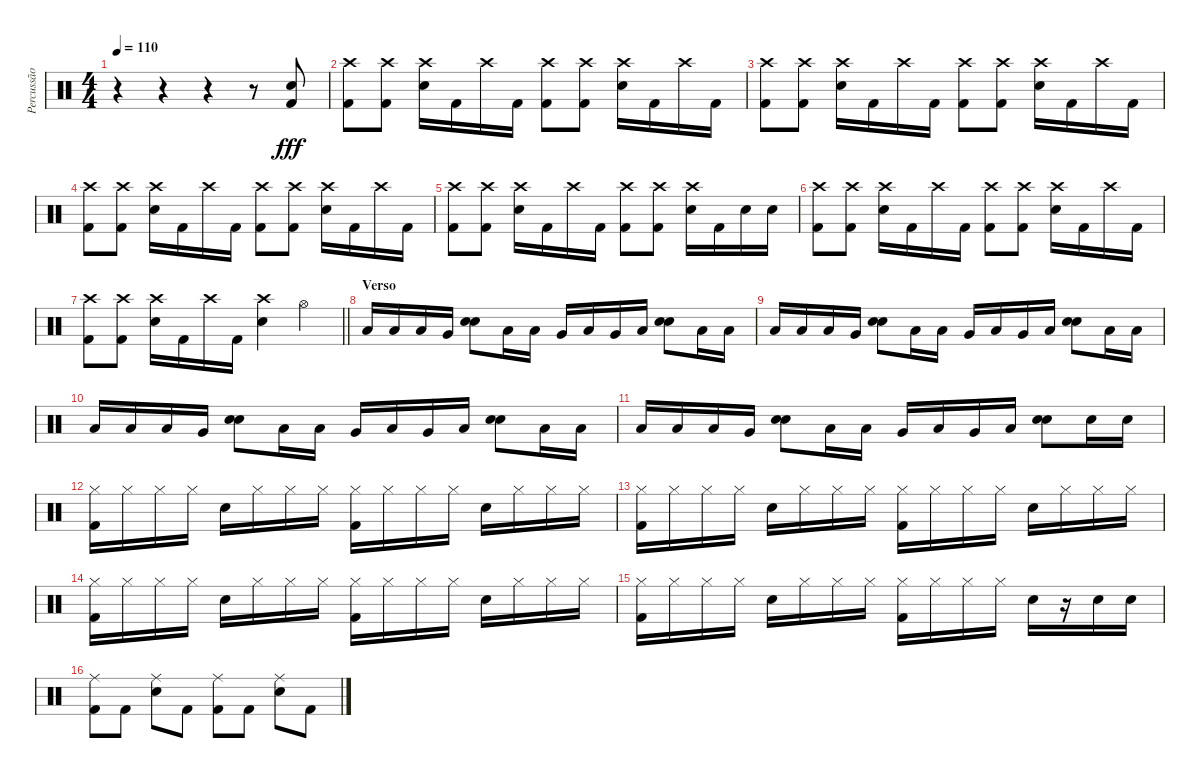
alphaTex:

\track ("Percussão" "Percussão") {instrument percussion}
\staff {score}
\articulation defaults
\ts (4 4)
\tempo 110
\clef neutral
\ks c
r.4{dy fff} r.4 r.4 r.8 ("Electric Snare (hit)" "Kick (hit) 2").8 |
("Crash high (hit)" "Kick (hit) 2").8 ("Crash high (hit)" "Kick (hit) 2").8 ("Crash high (hit)" "Electric Snare (hit)").16 "Kick (hit) 2".16 "Crash high (hit)".16 "Kick (hit) 2".16 ("Crash high (hit)" "Kick (hit) 2").8 ("Crash high (hit)" "Kick (hit) 2").8 ("Crash high (hit)" "Electric Snare (hit)").16 "Kick (hit) 2".16 "Crash high (hit)".16 "Kick (hit) 2".16 |
("Crash high (hit)" "Kick (hit) 2").8 ("Crash high (hit)" "Kick (hit) 2").8 ("Crash high (hit)" "Electric Snare (hit)").16 "Kick (hit) 2".16 "Crash high (hit)".16 "Kick (hit) 2".16 ("Crash high (hit)" "Kick (hit) 2").8 ("Crash high (hit)" "Kick (hit) 2").8 ("Crash high (hit)" "Electric Snare (hit)").16 "Kick (hit) 2".16 "Crash high (hit)".16 "Kick (hit) 2".16 |
("Crash high (hit)" "Kick (hit) 2").8 ("Crash high (hit)" "Kick (hit) 2").8 ("Crash high (hit)" "Electric Snare (hit)").16 "Kick (hit) 2".16 "Crash high (hit)".16 "Kick (hit) 2".16 ("Crash high (hit)" "Kick (hit) 2").8 ("Crash high (hit)" "Kick (hit) 2").8 ("Crash high (hit)" "Electric Snare (hit)").16 "Kick (hit) 2".16 "Crash high (hit)".16 "Kick (hit) 2".16 |
("Crash high (hit)" "Kick (hit) 2").8 ("Crash high (hit)" "Kick (hit) 2").8 ("Crash high (hit)" "Electric Snare (hit)").16 "Kick (hit) 2".16 "Crash high (hit)".16 "Kick (hit) 2".16 ("Crash high (hit)" "Kick (hit) 2").8 ("Crash high (hit)" "Kick (hit) 2").8 ("Crash high (hit)" "Electric Snare (hit)").16 "Kick (hit) 2".16 "Electric Snare (hit)".16 "Electric Snare (hit)".16 |
("Crash high (hit)" "Kick (hit) 2").8 ("Crash high (hit)" "Kick (hit) 2").8 ("Crash high (hit)" "Electric Snare (hit)").16 "Kick (hit) 2".16 "Crash high (hit)".16 "Kick (hit) 2".16 ("Crash high (hit)" "Kick (hit) 2").8 ("Crash high (hit)" "Kick (hit) 2").8 ("Crash high (hit)" "Electric Snare (hit)").16 "Kick (hit) 2".16 "Crash high (hit)".16 "Kick (hit) 2".16 |
\barLineRight lightlight
("Crash high (hit)" "Kick (hit) 2").8 ("Crash high (hit)" "Kick (hit) 2").8 ("Crash high (hit)" "Electric Snare (hit)").16 "Kick (hit) 2".16 "Crash high (hit)".16 "Kick (hit) 2".16 ("Crash high (hit)" "Electric Snare (hit)").4 "Hi-Hat (open)".4 |
\section ("" "Verso")
"Low Floor Tom (hit)".16 "Low Floor Tom (hit)".16 "Low Floor Tom (hit)".16 "Very Low Tom (hit)".16 ("Electric Snare (hit)" "Electric Snare (hit)").8{bd 240} "Low Floor Tom (hit)".16 "Low Floor Tom (hit)".16 "Very Low Tom (hit)".16 "Low Floor Tom (hit)".16 "Very Low Tom (hit)".16 "Low Floor Tom (hit)".16 ("Electric Snare (hit)" "Electric Snare (hit)").8{bd 240} "Low Floor Tom (hit)".16 "Low Floor Tom (hit)".16 |
"Low Floor Tom (hit)".16 "Low Floor Tom (hit)".16 "Low Floor Tom (hit)".16 "Very Low Tom (hit)".16 ("Electric Snare (hit)" "Electric Snare (hit)").8{bd 240} "Low Floor Tom (hit)".16 "Low Floor Tom (hit)".16 "Very Low Tom (hit)".16 "Low Floor Tom (hit)".16 "Very Low Tom (hit)".16 "Low Floor Tom (hit)".16 ("Electric Snare (hit)" "Electric Snare (hit)").8{bd 240} "Low Floor Tom (hit)".16 "Low Floor Tom (hit)".16 |
"Low Floor Tom (hit)".16 "Low Floor Tom (hit)".16 "Low Floor Tom (hit)".16 "Very Low Tom (hit)".16 ("Electric Snare (hit)" "Electric Snare (hit)").8{bd 240} "Low Floor Tom (hit)".16 "Low Floor Tom (hit)".16 "Very Low Tom (hit)".16 "Low Floor Tom (hit)".16 "Very Low Tom (hit)".16 "Low Floor Tom (hit)".16 ("Electric Snare (hit)" "Electric Snare (hit)").8{bd 240} "Low Floor Tom (hit)".16 "Low Floor Tom (hit)".16 |
"Low Floor Tom (hit)".16 "Low Floor Tom (hit)".16 "Low Floor Tom (hit)".16 "Very Low Tom (hit)".16 ("Electric Snare (hit)" "Electric Snare (hit)").8{bd 240} "Low Floor Tom (hit)".16 "Low Floor Tom (hit)".16 "Very Low Tom (hit)".16 "Low Floor Tom (hit)".16 "Very Low Tom (hit)".16 "Low Floor Tom (hit)".16 ("Electric Snare (hit)" "Electric Snare (hit)").8{bd 240} "Electric Snare (hit)".16 "Electric Snare (hit)".16 |
("Hi-Hat (closed)" "Kick (hit) 2").16 "Hi-Hat (closed)".16 "Hi-Hat (closed)".16 "Hi-Hat (closed)".16 "Electric Snare (hit)".16 "Hi-Hat (closed)".16 "Hi-Hat (closed)".16 "Hi-Hat (closed)".16 ("Hi-Hat (closed)" "Kick (hit) 2").16 "Hi-Hat (closed)".16 "Hi-Hat (closed)".16 "Hi-Hat (closed)".16 "Electric Snare (hit)".16 "Hi-Hat (closed)".16 "Hi-Hat (closed)".16 "Hi-Hat (closed)".16 |
("Hi-Hat (closed)" "Kick (hit) 2").16 "Hi-Hat (closed)".16 "Hi-Hat (closed)".16 "Hi-Hat (closed)".16 "Electric Snare (hit)".16 "Hi-Hat (closed)".16 "Hi-Hat (closed)".16 "Hi-Hat (closed)".16 ("Hi-Hat (closed)" "Kick (hit) 2").16 "Hi-Hat (closed)".16 "Hi-Hat (closed)".16 "Hi-Hat (closed)".16 "Electric Snare (hit)".16 "Hi-Hat (closed)".16 "Hi-Hat (closed)".16 "Hi-Hat (closed)".16 |
("Hi-Hat (closed)" "Kick (hit) 2").16 "Hi-Hat (closed)".16 "Hi-Hat (closed)".16 "Hi-Hat (closed)".16 "Electric Snare (hit)".16 "Hi-Hat (closed)".16 "Hi-Hat (closed)".16 "Hi-Hat (closed)".16 ("Hi-Hat (closed)" "Kick (hit) 2").16 "Hi-Hat (closed)".16 "Hi-Hat (closed)".16 "Hi-Hat (closed)".16 "Electric Snare (hit)".16 "Hi-Hat (closed)".16 "Hi-Hat (closed)".16 "Hi-Hat (closed)".16 |
("Hi-Hat (closed)" "Kick (hit) 2").16 "Hi-Hat (closed)".16 "Hi-Hat (closed)".16 "Hi-Hat (closed)".16 "Electric Snare (hit)".16 "Hi-Hat (closed)".16 "Hi-Hat (closed)".16 "Hi-Hat (closed)".16 ("Hi-Hat (closed)" "Kick (hit) 2").16 "Hi-Hat (closed)".16 "Hi-Hat (closed)".16 "Hi-Hat (closed)".16 "Electric Snare (hit)".16 r.16 "Electric Snare (hit)".16 "Electric Snare (hit)".16 |
("Ride (middle)" "Kick (hit) 2").8 "Kick (hit) 2".8 ("Ride (middle)" "Electric Snare (hit)").8 "Kick (hit) 2".8 ("Ride (middle)" "Kick (hit) 2").8 "Kick (hit) 2".8 ("Ride (middle)" "Electric Snare (hit)").8 "Kick (hit) 2".8
